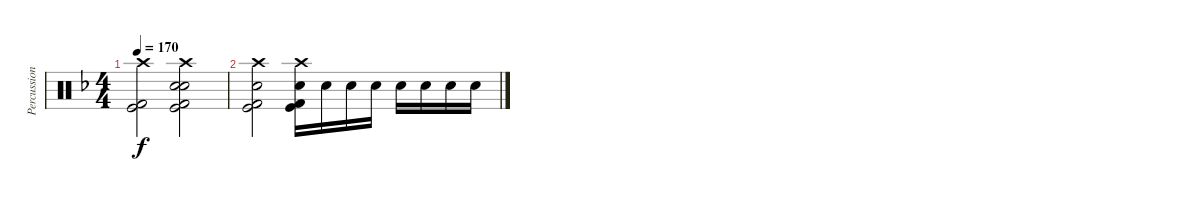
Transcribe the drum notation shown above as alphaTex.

\track ("Percussion" "Percussion") {instrument percussion}
\staff {score}
\articulation defaults
\ts (4 4)
\tempo 170
\clef neutral
\ks dminor
("Crash high (hit)" "Kick (hit) 2" "Kick (hit)").2{dy f} ("Electric Snare (hit)" "Electric Snare (hit)" "Crash high (hit)" "Kick (hit) 2" "Kick (hit)").2 |
("Electric Snare (hit)" "Crash high (hit)" "Kick (hit) 2" "Kick (hit)").2 ("Electric Snare (hit)" "Crash high (hit)" "Kick (hit) 2" "Kick (hit)").16 "Electric Snare (hit)".16 "Electric Snare (hit)".16 "Electric Snare (hit)".16 "Electric Snare (hit)".16 "Electric Snare (hit)".16 "Electric Snare (hit)".16 "Electric Snare (hit)".16
